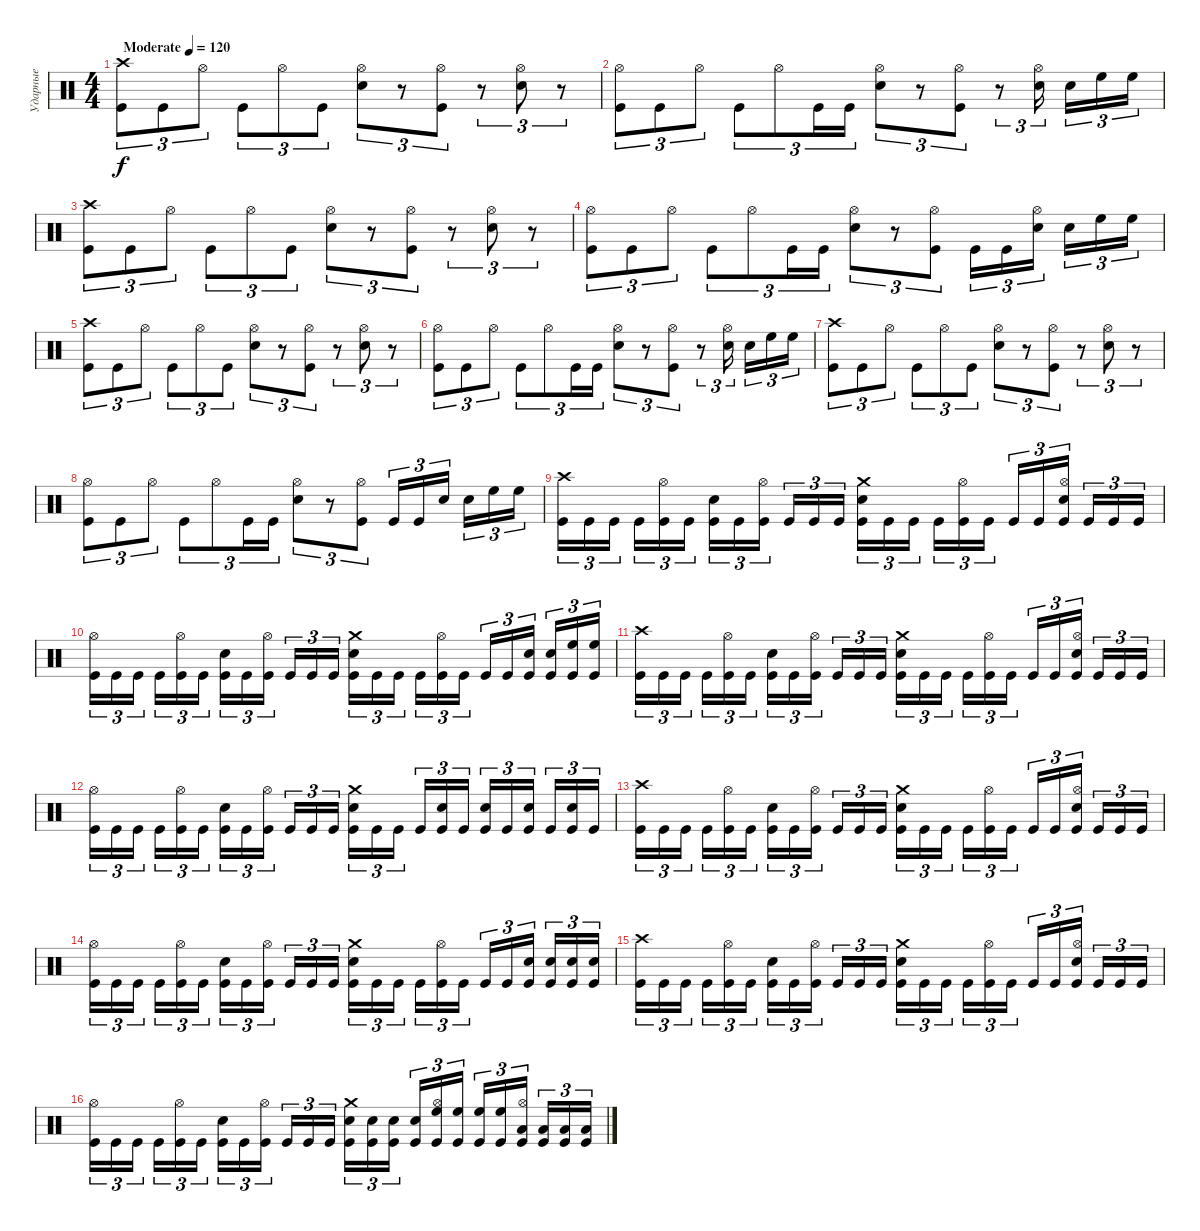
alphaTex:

\track ("Ударные" "Ударные") {instrument percussion}
\staff {score}
\articulation defaults
\ts (4 4)
\tempo (120 "Moderate")
\clef neutral
\ks c
("Crash high (hit)" "Kick (hit)").8{tu (3 2) dy f} "Kick (hit)".8{tu (3 2)} "Hi-Hat (open)".8{tu (3 2)} "Kick (hit)".8{tu (3 2)} "Hi-Hat (open)".8{tu (3 2)} "Kick (hit)".8{tu (3 2)} ("Hi-Hat (open)" "Snare (hit) 2").8{tu (3 2)} r.8{tu (3 2)} ("Hi-Hat (open)" "Kick (hit)").8{tu (3 2)} r.8{tu (3 2)} ("Hi-Hat (open)" "Snare (hit) 2").8{tu (3 2)} r.8{tu (3 2)} |
("Hi-Hat (open)" "Kick (hit)").8{tu (3 2)} "Kick (hit)".8{tu (3 2)} "Hi-Hat (open)".8{tu (3 2)} "Kick (hit)".8{tu (3 2)} "Hi-Hat (open)".8{tu (3 2)} "Kick (hit)".16{tu (3 2)} "Kick (hit)".16{tu (3 2)} ("Hi-Hat (open)" "Snare (hit) 2").8{tu (3 2)} r.8{tu (3 2)} ("Hi-Hat (open)" "Kick (hit)").8{tu (3 2)} r.8{tu (3 2)} ("Hi-Hat (open)" "Snare (hit) 2").16{tu (3 2) beam splitsecondary} "Snare (hit) 2".16{tu (3 2)} "High Floor Tom (hit)".16{tu (3 2)} "High Floor Tom (hit)".16{tu (3 2)} |
("Crash high (hit)" "Kick (hit)").8{tu (3 2)} "Kick (hit)".8{tu (3 2)} "Hi-Hat (open)".8{tu (3 2)} "Kick (hit)".8{tu (3 2)} "Hi-Hat (open)".8{tu (3 2)} "Kick (hit)".8{tu (3 2)} ("Hi-Hat (open)" "Snare (hit) 2").8{tu (3 2)} r.8{tu (3 2)} ("Hi-Hat (open)" "Kick (hit)").8{tu (3 2)} r.8{tu (3 2)} ("Hi-Hat (open)" "Snare (hit) 2").8{tu (3 2)} r.8{tu (3 2)} |
("Hi-Hat (open)" "Kick (hit)").8{tu (3 2)} "Kick (hit)".8{tu (3 2)} "Hi-Hat (open)".8{tu (3 2)} "Kick (hit)".8{tu (3 2)} "Hi-Hat (open)".8{tu (3 2)} "Kick (hit)".16{tu (3 2)} "Kick (hit)".16{tu (3 2)} ("Hi-Hat (open)" "Snare (hit) 2").8{tu (3 2)} r.8{tu (3 2)} ("Hi-Hat (open)" "Kick (hit)").8{tu (3 2)} "Kick (hit)".16{tu (3 2)} "Kick (hit)".16{tu (3 2)} ("Hi-Hat (open)" "Snare (hit) 2").16{tu (3 2) beam splitsecondary} "Snare (hit) 2".16{tu (3 2)} "High Floor Tom (hit)".16{tu (3 2)} "High Floor Tom (hit)".16{tu (3 2)} |
("Crash high (hit)" "Kick (hit)").8{tu (3 2)} "Kick (hit)".8{tu (3 2)} "Hi-Hat (open)".8{tu (3 2)} "Kick (hit)".8{tu (3 2)} "Hi-Hat (open)".8{tu (3 2)} "Kick (hit)".8{tu (3 2)} ("Hi-Hat (open)" "Snare (hit) 2").8{tu (3 2)} r.8{tu (3 2)} ("Hi-Hat (open)" "Kick (hit)").8{tu (3 2)} r.8{tu (3 2)} ("Hi-Hat (open)" "Snare (hit) 2").8{tu (3 2)} r.8{tu (3 2)} |
("Hi-Hat (open)" "Kick (hit)").8{tu (3 2)} "Kick (hit)".8{tu (3 2)} "Hi-Hat (open)".8{tu (3 2)} "Kick (hit)".8{tu (3 2)} "Hi-Hat (open)".8{tu (3 2)} "Kick (hit)".16{tu (3 2)} "Kick (hit)".16{tu (3 2)} ("Hi-Hat (open)" "Snare (hit) 2").8{tu (3 2)} r.8{tu (3 2)} ("Hi-Hat (open)" "Kick (hit)").8{tu (3 2)} r.8{tu (3 2)} ("Hi-Hat (open)" "Snare (hit) 2").16{tu (3 2) beam splitsecondary} "Snare (hit) 2".16{tu (3 2)} "High Floor Tom (hit)".16{tu (3 2)} "High Floor Tom (hit)".16{tu (3 2)} |
("Crash high (hit)" "Kick (hit)").8{tu (3 2)} "Kick (hit)".8{tu (3 2)} "Hi-Hat (open)".8{tu (3 2)} "Kick (hit)".8{tu (3 2)} "Hi-Hat (open)".8{tu (3 2)} "Kick (hit)".8{tu (3 2)} ("Hi-Hat (open)" "Snare (hit) 2").8{tu (3 2)} r.8{tu (3 2)} ("Hi-Hat (open)" "Kick (hit)").8{tu (3 2)} r.8{tu (3 2)} ("Hi-Hat (open)" "Snare (hit) 2").8{tu (3 2)} r.8{tu (3 2)} |
("Hi-Hat (open)" "Kick (hit)").8{tu (3 2)} "Kick (hit)".8{tu (3 2)} "Hi-Hat (open)".8{tu (3 2)} "Kick (hit)".8{tu (3 2)} "Hi-Hat (open)".8{tu (3 2)} "Kick (hit)".16{tu (3 2)} "Kick (hit)".16{tu (3 2)} ("Hi-Hat (open)" "Snare (hit) 2").8{tu (3 2)} r.8{tu (3 2)} ("Hi-Hat (open)" "Kick (hit)").8{tu (3 2)} "Kick (hit)".16{tu (3 2)} "Kick (hit)".16{tu (3 2)} "Snare (hit) 2".16{tu (3 2) beam splitsecondary} "Snare (hit) 2".16{tu (3 2)} "High Floor Tom (hit)".16{tu (3 2)} "High Floor Tom (hit)".16{tu (3 2)} |
("Crash high (hit)" "Kick (hit)").16{tu (3 2)} "Kick (hit)".16{tu (3 2)} "Kick (hit)".16{tu (3 2) beam splitsecondary} "Kick (hit)".16{tu (3 2)} ("Hi-Hat (open)" "Kick (hit)").16{tu (3 2)} "Kick (hit)".16{tu (3 2)} ("Snare (hit) 2" "Kick (hit)").16{tu (3 2)} "Kick (hit)".16{tu (3 2)} ("Hi-Hat (open)" "Kick (hit)").16{tu (3 2) beam splitsecondary} "Kick (hit)".16{tu (3 2)} "Kick (hit)".16{tu (3 2)} "Kick (hit)".16{tu (3 2)} ("Crash medium (hit)" "Snare (hit) 2" "Kick (hit)").16{tu (3 2)} "Kick (hit)".16{tu (3 2)} "Kick (hit)".16{tu (3 2) beam splitsecondary} "Kick (hit)".16{tu (3 2)} ("Hi-Hat (open)" "Kick (hit)").16{tu (3 2)} "Kick (hit)".16{tu (3 2)} "Kick (hit)".16{tu (3 2)} "Kick (hit)".16{tu (3 2)} ("Hi-Hat (open)" "Snare (hit) 2" "Kick (hit)").16{tu (3 2) beam splitsecondary} "Kick (hit)".16{tu (3 2)} "Kick (hit)".16{tu (3 2)} "Kick (hit)".16{tu (3 2)} |
("Hi-Hat (open)" "Kick (hit)").16{tu (3 2)} "Kick (hit)".16{tu (3 2)} "Kick (hit)".16{tu (3 2) beam splitsecondary} "Kick (hit)".16{tu (3 2)} ("Hi-Hat (open)" "Kick (hit)").16{tu (3 2)} "Kick (hit)".16{tu (3 2)} ("Snare (hit) 2" "Kick (hit)").16{tu (3 2)} "Kick (hit)".16{tu (3 2)} ("Hi-Hat (open)" "Kick (hit)").16{tu (3 2) beam splitsecondary} "Kick (hit)".16{tu (3 2)} "Kick (hit)".16{tu (3 2)} "Kick (hit)".16{tu (3 2)} ("Crash medium (hit)" "Snare (hit) 2" "Kick (hit)").16{tu (3 2)} "Kick (hit)".16{tu (3 2)} "Kick (hit)".16{tu (3 2) beam splitsecondary} "Kick (hit)".16{tu (3 2)} ("Hi-Hat (open)" "Kick (hit)").16{tu (3 2)} "Kick (hit)".16{tu (3 2)} "Kick (hit)".16{tu (3 2)} "Kick (hit)".16{tu (3 2)} ("Snare (hit) 2" "Kick (hit)").16{tu (3 2) beam splitsecondary} ("Snare (hit) 2" "Kick (hit)").16{tu (3 2)} ("High Floor Tom (hit)" "Kick (hit)").16{tu (3 2)} ("High Floor Tom (hit)" "Kick (hit)").16{tu (3 2)} |
("Crash high (hit)" "Kick (hit)").16{tu (3 2)} "Kick (hit)".16{tu (3 2)} "Kick (hit)".16{tu (3 2) beam splitsecondary} "Kick (hit)".16{tu (3 2)} ("Hi-Hat (open)" "Kick (hit)").16{tu (3 2)} "Kick (hit)".16{tu (3 2)} ("Snare (hit) 2" "Kick (hit)").16{tu (3 2)} "Kick (hit)".16{tu (3 2)} ("Hi-Hat (open)" "Kick (hit)").16{tu (3 2) beam splitsecondary} "Kick (hit)".16{tu (3 2)} "Kick (hit)".16{tu (3 2)} "Kick (hit)".16{tu (3 2)} ("Crash medium (hit)" "Snare (hit) 2" "Kick (hit)").16{tu (3 2)} "Kick (hit)".16{tu (3 2)} "Kick (hit)".16{tu (3 2) beam splitsecondary} "Kick (hit)".16{tu (3 2)} ("Hi-Hat (open)" "Kick (hit)").16{tu (3 2)} "Kick (hit)".16{tu (3 2)} "Kick (hit)".16{tu (3 2)} "Kick (hit)".16{tu (3 2)} ("Hi-Hat (open)" "Snare (hit) 2" "Kick (hit)").16{tu (3 2) beam splitsecondary} "Kick (hit)".16{tu (3 2)} "Kick (hit)".16{tu (3 2)} "Kick (hit)".16{tu (3 2)} |
("Hi-Hat (open)" "Kick (hit)").16{tu (3 2)} "Kick (hit)".16{tu (3 2)} "Kick (hit)".16{tu (3 2) beam splitsecondary} "Kick (hit)".16{tu (3 2)} ("Hi-Hat (open)" "Kick (hit)").16{tu (3 2)} "Kick (hit)".16{tu (3 2)} ("Snare (hit) 2" "Kick (hit)").16{tu (3 2)} "Kick (hit)".16{tu (3 2)} ("Hi-Hat (open)" "Kick (hit)").16{tu (3 2) beam splitsecondary} "Kick (hit)".16{tu (3 2)} "Kick (hit)".16{tu (3 2)} "Kick (hit)".16{tu (3 2)} ("Crash medium (hit)" "Snare (hit) 2" "Kick (hit)").16{tu (3 2)} "Kick (hit)".16{tu (3 2)} "Kick (hit)".16{tu (3 2) beam splitsecondary} "Kick (hit)".16{tu (3 2)} ("Snare (hit) 2" "Kick (hit)").16{tu (3 2)} "Kick (hit)".16{tu (3 2)} ("Snare (hit) 2" "Kick (hit)").16{tu (3 2)} "Kick (hit)".16{tu (3 2)} ("Snare (hit) 2" "Kick (hit)").16{tu (3 2) beam splitsecondary} "Kick (hit)".16{tu (3 2)} ("Snare (hit) 2" "Kick (hit)").16{tu (3 2)} "Kick (hit)".16{tu (3 2)} |
("Crash high (hit)" "Kick (hit)").16{tu (3 2)} "Kick (hit)".16{tu (3 2)} "Kick (hit)".16{tu (3 2) beam splitsecondary} "Kick (hit)".16{tu (3 2)} ("Hi-Hat (open)" "Kick (hit)").16{tu (3 2)} "Kick (hit)".16{tu (3 2)} ("Snare (hit) 2" "Kick (hit)").16{tu (3 2)} "Kick (hit)".16{tu (3 2)} ("Hi-Hat (open)" "Kick (hit)").16{tu (3 2) beam splitsecondary} "Kick (hit)".16{tu (3 2)} "Kick (hit)".16{tu (3 2)} "Kick (hit)".16{tu (3 2)} ("Crash medium (hit)" "Snare (hit) 2" "Kick (hit)").16{tu (3 2)} "Kick (hit)".16{tu (3 2)} "Kick (hit)".16{tu (3 2) beam splitsecondary} "Kick (hit)".16{tu (3 2)} ("Hi-Hat (open)" "Kick (hit)").16{tu (3 2)} "Kick (hit)".16{tu (3 2)} "Kick (hit)".16{tu (3 2)} "Kick (hit)".16{tu (3 2)} ("Hi-Hat (open)" "Snare (hit) 2" "Kick (hit)").16{tu (3 2) beam splitsecondary} "Kick (hit)".16{tu (3 2)} "Kick (hit)".16{tu (3 2)} "Kick (hit)".16{tu (3 2)} |
("Hi-Hat (open)" "Kick (hit)").16{tu (3 2)} "Kick (hit)".16{tu (3 2)} "Kick (hit)".16{tu (3 2) beam splitsecondary} "Kick (hit)".16{tu (3 2)} ("Hi-Hat (open)" "Kick (hit)").16{tu (3 2)} "Kick (hit)".16{tu (3 2)} ("Snare (hit) 2" "Kick (hit)").16{tu (3 2)} "Kick (hit)".16{tu (3 2)} ("Hi-Hat (open)" "Kick (hit)").16{tu (3 2) beam splitsecondary} "Kick (hit)".16{tu (3 2)} "Kick (hit)".16{tu (3 2)} "Kick (hit)".16{tu (3 2)} ("Crash medium (hit)" "Snare (hit) 2" "Kick (hit)").16{tu (3 2)} "Kick (hit)".16{tu (3 2)} "Kick (hit)".16{tu (3 2) beam splitsecondary} "Kick (hit)".16{tu (3 2)} ("Hi-Hat (open)" "Kick (hit)").16{tu (3 2)} "Kick (hit)".16{tu (3 2)} "Kick (hit)".16{tu (3 2)} "Kick (hit)".16{tu (3 2)} ("Snare (hit) 2" "Kick (hit)").16{tu (3 2) beam splitsecondary} ("Snare (hit) 2" "Kick (hit)").16{tu (3 2)} ("Snare (hit) 2" "Kick (hit)").16{tu (3 2)} ("Snare (hit) 2" "Kick (hit)").16{tu (3 2)} |
("Crash high (hit)" "Kick (hit)").16{tu (3 2)} "Kick (hit)".16{tu (3 2)} "Kick (hit)".16{tu (3 2) beam splitsecondary} "Kick (hit)".16{tu (3 2)} ("Hi-Hat (open)" "Kick (hit)").16{tu (3 2)} "Kick (hit)".16{tu (3 2)} ("Snare (hit) 2" "Kick (hit)").16{tu (3 2)} "Kick (hit)".16{tu (3 2)} ("Hi-Hat (open)" "Kick (hit)").16{tu (3 2) beam splitsecondary} "Kick (hit)".16{tu (3 2)} "Kick (hit)".16{tu (3 2)} "Kick (hit)".16{tu (3 2)} ("Crash medium (hit)" "Snare (hit) 2" "Kick (hit)").16{tu (3 2)} "Kick (hit)".16{tu (3 2)} "Kick (hit)".16{tu (3 2) beam splitsecondary} "Kick (hit)".16{tu (3 2)} ("Hi-Hat (open)" "Kick (hit)").16{tu (3 2)} "Kick (hit)".16{tu (3 2)} "Kick (hit)".16{tu (3 2)} "Kick (hit)".16{tu (3 2)} ("Hi-Hat (open)" "Snare (hit) 2" "Kick (hit)").16{tu (3 2) beam splitsecondary} "Kick (hit)".16{tu (3 2)} "Kick (hit)".16{tu (3 2)} "Kick (hit)".16{tu (3 2)} |
("Hi-Hat (open)" "Kick (hit)").16{tu (3 2)} "Kick (hit)".16{tu (3 2)} "Kick (hit)".16{tu (3 2) beam splitsecondary} "Kick (hit)".16{tu (3 2)} ("Hi-Hat (open)" "Kick (hit)").16{tu (3 2)} "Kick (hit)".16{tu (3 2)} ("Snare (hit) 2" "Kick (hit)").16{tu (3 2)} "Kick (hit)".16{tu (3 2)} ("Hi-Hat (open)" "Kick (hit)").16{tu (3 2) beam splitsecondary} "Kick (hit)".16{tu (3 2)} "Kick (hit)".16{tu (3 2)} "Kick (hit)".16{tu (3 2)} ("Crash medium (hit)" "Snare (hit) 2" "Kick (hit)").16{tu (3 2)} ("Snare (hit) 2" "Kick (hit)").16{tu (3 2)} ("Snare (hit) 2" "Kick (hit)").16{tu (3 2) beam splitsecondary} ("Snare (hit) 2" "Kick (hit)").16{tu (3 2)} ("Hi-Hat (open)" "High Floor Tom (hit)" "Kick (hit)").16{tu (3 2)} ("High Floor Tom (hit)" "Kick (hit)").16{tu (3 2)} ("High Floor Tom (hit)" "Kick (hit)").16{tu (3 2)} ("High Floor Tom (hit)" "Kick (hit)").16{tu (3 2)} ("Hi-Hat (open)" "Low Tom (hit)" "Kick (hit)").16{tu (3 2) beam splitsecondary} ("Low Tom (hit)" "Kick (hit)").16{tu (3 2)} ("Low Tom (hit)" "Kick (hit)").16{tu (3 2)} ("Low Tom (hit)" "Kick (hit)").16{tu (3 2)}
